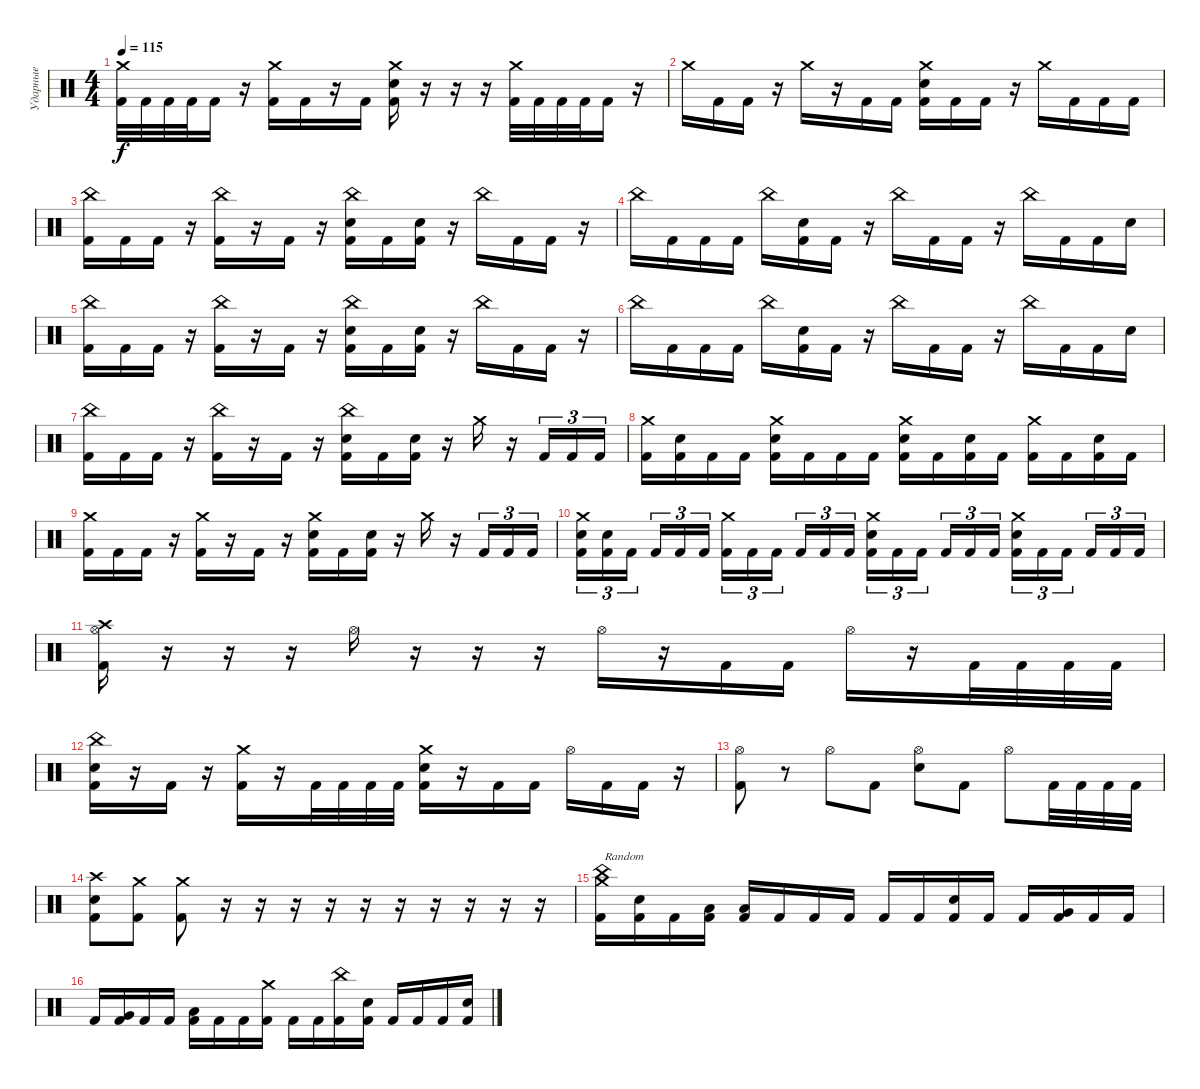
\track ("Ударные" "Ударные") {instrument percussion}
\staff {score}
\articulation defaults
\ts (4 4)
\tempo 115
\clef neutral
\ks c
("Crash medium (hit)" "Kick (hit) 2").32{dy f} "Kick (hit) 2".32 "Kick (hit) 2".32 "Kick (hit) 2".32 "Kick (hit) 2".16 r.16 ("Crash medium (hit)" "Kick (hit) 2").16 "Kick (hit) 2".16 r.16 "Kick (hit) 2".16 ("Crash medium (hit)" "Electric Snare (hit)" "Kick (hit) 2").16 r.16 r.16 r.16 ("Crash medium (hit)" "Kick (hit) 2").32 "Kick (hit) 2".32 "Kick (hit) 2".32 "Kick (hit) 2".32 "Kick (hit) 2".16 r.16 |
"Crash medium (hit)".16 "Kick (hit) 2".16 "Kick (hit) 2".16 r.16 "Crash medium (hit)".16 r.16 "Kick (hit) 2".16 "Kick (hit) 2".16 ("Crash medium (hit)" "Electric Snare (hit)" "Kick (hit) 2").16 "Kick (hit) 2".16 "Kick (hit) 2".16 r.16 "Crash medium (hit)".16 "Kick (hit) 2".16 "Kick (hit) 2".16 "Kick (hit) 2".16 |
("China (hit)" "Kick (hit) 2").16 "Kick (hit) 2".16 "Kick (hit) 2".16 r.16 ("China (hit)" "Kick (hit) 2").16 r.16 "Kick (hit) 2".16 r.16 ("China (hit)" "Electric Snare (hit)" "Kick (hit) 2").16 "Kick (hit) 2".16 ("Electric Snare (hit)" "Kick (hit) 2").16 r.16 "China (hit)".16 "Kick (hit) 2".16 "Kick (hit) 2".16 r.16 |
"China (hit)".16 "Kick (hit) 2".16 "Kick (hit) 2".16 "Kick (hit) 2".16 "China (hit)".16 ("Electric Snare (hit)" "Kick (hit) 2").16 "Kick (hit) 2".16 r.16 "China (hit)".16 "Kick (hit) 2".16 "Kick (hit) 2".16 r.16 "China (hit)".16 "Kick (hit) 2".16 "Kick (hit) 2".16 "Electric Snare (hit)".16 |
("China (hit)" "Kick (hit) 2").16 "Kick (hit) 2".16 "Kick (hit) 2".16 r.16 ("China (hit)" "Kick (hit) 2").16 r.16 "Kick (hit) 2".16 r.16 ("China (hit)" "Electric Snare (hit)" "Kick (hit) 2").16 "Kick (hit) 2".16 ("Electric Snare (hit)" "Kick (hit) 2").16 r.16 "China (hit)".16 "Kick (hit) 2".16 "Kick (hit) 2".16 r.16 |
"China (hit)".16 "Kick (hit) 2".16 "Kick (hit) 2".16 "Kick (hit) 2".16 "China (hit)".16 ("Electric Snare (hit)" "Kick (hit) 2").16 "Kick (hit) 2".16 r.16 "China (hit)".16 "Kick (hit) 2".16 "Kick (hit) 2".16 r.16 "China (hit)".16 "Kick (hit) 2".16 "Kick (hit) 2".16 "Electric Snare (hit)".16 |
("China (hit)" "Kick (hit) 2").16 "Kick (hit) 2".16 "Kick (hit) 2".16 r.16 ("China (hit)" "Kick (hit) 2").16 r.16 "Kick (hit) 2".16 r.16 ("China (hit)" "Electric Snare (hit)" "Kick (hit) 2").16 "Kick (hit) 2".16 ("Electric Snare (hit)" "Kick (hit) 2").16 r.16 "Crash medium (hit)".16 r.16 "Kick (hit) 2".16{tu (3 2)} "Kick (hit) 2".16{tu (3 2)} "Kick (hit) 2".16{tu (3 2)} |
("Crash medium (hit)" "Kick (hit) 2").16 ("Electric Snare (hit)" "Kick (hit) 2").16 "Kick (hit) 2".16 "Kick (hit) 2".16 ("Crash medium (hit)" "Electric Snare (hit)" "Kick (hit) 2").16 "Kick (hit) 2".16 "Kick (hit) 2".16 "Kick (hit) 2".16 ("Crash medium (hit)" "Electric Snare (hit)" "Kick (hit) 2").16 "Kick (hit) 2".16 ("Electric Snare (hit)" "Kick (hit) 2").16 "Kick (hit) 2".16 ("Crash medium (hit)" "Kick (hit) 2").16 "Kick (hit) 2".16 ("Electric Snare (hit)" "Kick (hit) 2").16 "Kick (hit) 2".16 |
("Crash medium (hit)" "Kick (hit) 2").16 "Kick (hit) 2".16 "Kick (hit) 2".16 r.16 ("Crash medium (hit)" "Kick (hit) 2").16 r.16 "Kick (hit) 2".16 r.16 ("Crash medium (hit)" "Electric Snare (hit)" "Kick (hit) 2").16 "Kick (hit) 2".16 ("Electric Snare (hit)" "Kick (hit) 2").16 r.16 "Crash medium (hit)".16 r.16 "Kick (hit) 2".16{tu (3 2)} "Kick (hit) 2".16{tu (3 2)} "Kick (hit) 2".16{tu (3 2)} |
("Crash medium (hit)" "Electric Snare (hit)" "Kick (hit) 2").16{tu (3 2)} ("Electric Snare (hit)" "Kick (hit) 2").16{tu (3 2)} "Kick (hit) 2".16{tu (3 2) beam splitsecondary} "Kick (hit) 2".16{tu (3 2)} "Kick (hit) 2".16{tu (3 2)} "Kick (hit) 2".16{tu (3 2)} ("Crash medium (hit)" "Kick (hit) 2").16{tu (3 2)} "Kick (hit) 2".16{tu (3 2)} "Kick (hit) 2".16{tu (3 2) beam splitsecondary} "Kick (hit) 2".16{tu (3 2)} "Kick (hit) 2".16{tu (3 2)} "Kick (hit) 2".16{tu (3 2)} ("Crash medium (hit)" "Electric Snare (hit)" "Kick (hit) 2").16{tu (3 2)} "Kick (hit) 2".16{tu (3 2)} "Kick (hit) 2".16{tu (3 2) beam splitsecondary} "Kick (hit) 2".16{tu (3 2)} "Kick (hit) 2".16{tu (3 2)} "Kick (hit) 2".16{tu (3 2)} ("Crash medium (hit)" "Electric Snare (hit)" "Kick (hit) 2").16{tu (3 2)} "Kick (hit) 2".16{tu (3 2)} "Kick (hit) 2".16{tu (3 2) beam splitsecondary} "Kick (hit) 2".16{tu (3 2)} "Kick (hit) 2".16{tu (3 2)} "Kick (hit) 2".16{tu (3 2)} |
("Crash high (hit)" "Hi-Hat (open)" "Kick (hit) 2").16 r.16 r.16 r.16 "Hi-Hat (open)".16 r.16 r.16 r.16 "Hi-Hat (open)".16 r.16 "Kick (hit) 2".16 "Kick (hit) 2".16 "Hi-Hat (open)".16 r.16 "Kick (hit) 2".32 "Kick (hit) 2".32 "Kick (hit) 2".32 "Kick (hit) 2".32 |
("China (hit)" "Electric Snare (hit)" "Kick (hit) 2").16 r.16 "Kick (hit) 2".16 r.16 ("Crash medium (hit)" "Kick (hit) 2").16 r.16 "Kick (hit) 2".32 "Kick (hit) 2".32 "Kick (hit) 2".32 "Kick (hit) 2".32 ("Crash medium (hit)" "Electric Snare (hit)" "Kick (hit) 2").16 r.16 "Kick (hit) 2".16 "Kick (hit) 2".16 "Hi-Hat (open)".16 "Kick (hit) 2".16 "Kick (hit) 2".16 r.16 |
("Hi-Hat (open)" "Kick (hit) 2").8 r.8 "Hi-Hat (open)".8 "Kick (hit) 2".8 ("Hi-Hat (open)" "Electric Snare (hit)").8 "Kick (hit) 2".8 "Hi-Hat (open)".8 "Kick (hit) 2".32 "Kick (hit) 2".32 "Kick (hit) 2".32 "Kick (hit) 2".32 |
("Crash high (hit)" "Electric Snare (hit)" "Kick (hit) 2").8 ("Crash medium (hit)" "Kick (hit) 2").8 ("Crash medium (hit)" "Kick (hit) 2").8 r.16 r.16 r.16 r.16 r.16 r.16 r.16 r.16 r.16 r.16 |
("Crash medium (hit)" "China (hit)" "Kick (hit) 2").16{txt "Random"} ("Electric Snare (hit)" "Kick (hit) 2").16 "Kick (hit) 2".16 ("Low Floor Tom (hit)" "Kick (hit) 2").16 ("Low Tom (hit)" "Kick (hit) 2").16 "Kick (hit) 2".16 "Kick (hit) 2".16 "Kick (hit) 2".16 "Kick (hit) 2".16 "Kick (hit) 2".16 ("Electric Snare (hit)" "Kick (hit) 2").16 "Kick (hit) 2".16 "Kick (hit) 2".16 ("Very Low Tom (hit)" "Kick (hit) 2").16 "Kick (hit) 2".16 "Kick (hit) 2".16 |
"Kick (hit) 2".16 ("Very Low Tom (hit)" "Kick (hit) 2").16 "Kick (hit) 2".16 "Kick (hit) 2".16 ("Low Floor Tom (hit)" "Kick (hit) 2").16 "Kick (hit) 2".16 "Kick (hit) 2".16 ("Crash medium (hit)" "Kick (hit) 2").16 "Kick (hit) 2".16 "Kick (hit) 2".16 ("China (hit)" "Kick (hit) 2").16 ("Electric Snare (hit)" "Kick (hit) 2").16 "Kick (hit) 2".16 "Kick (hit) 2".16 "Kick (hit) 2".16 ("Electric Snare (hit)" "Kick (hit) 2").16
